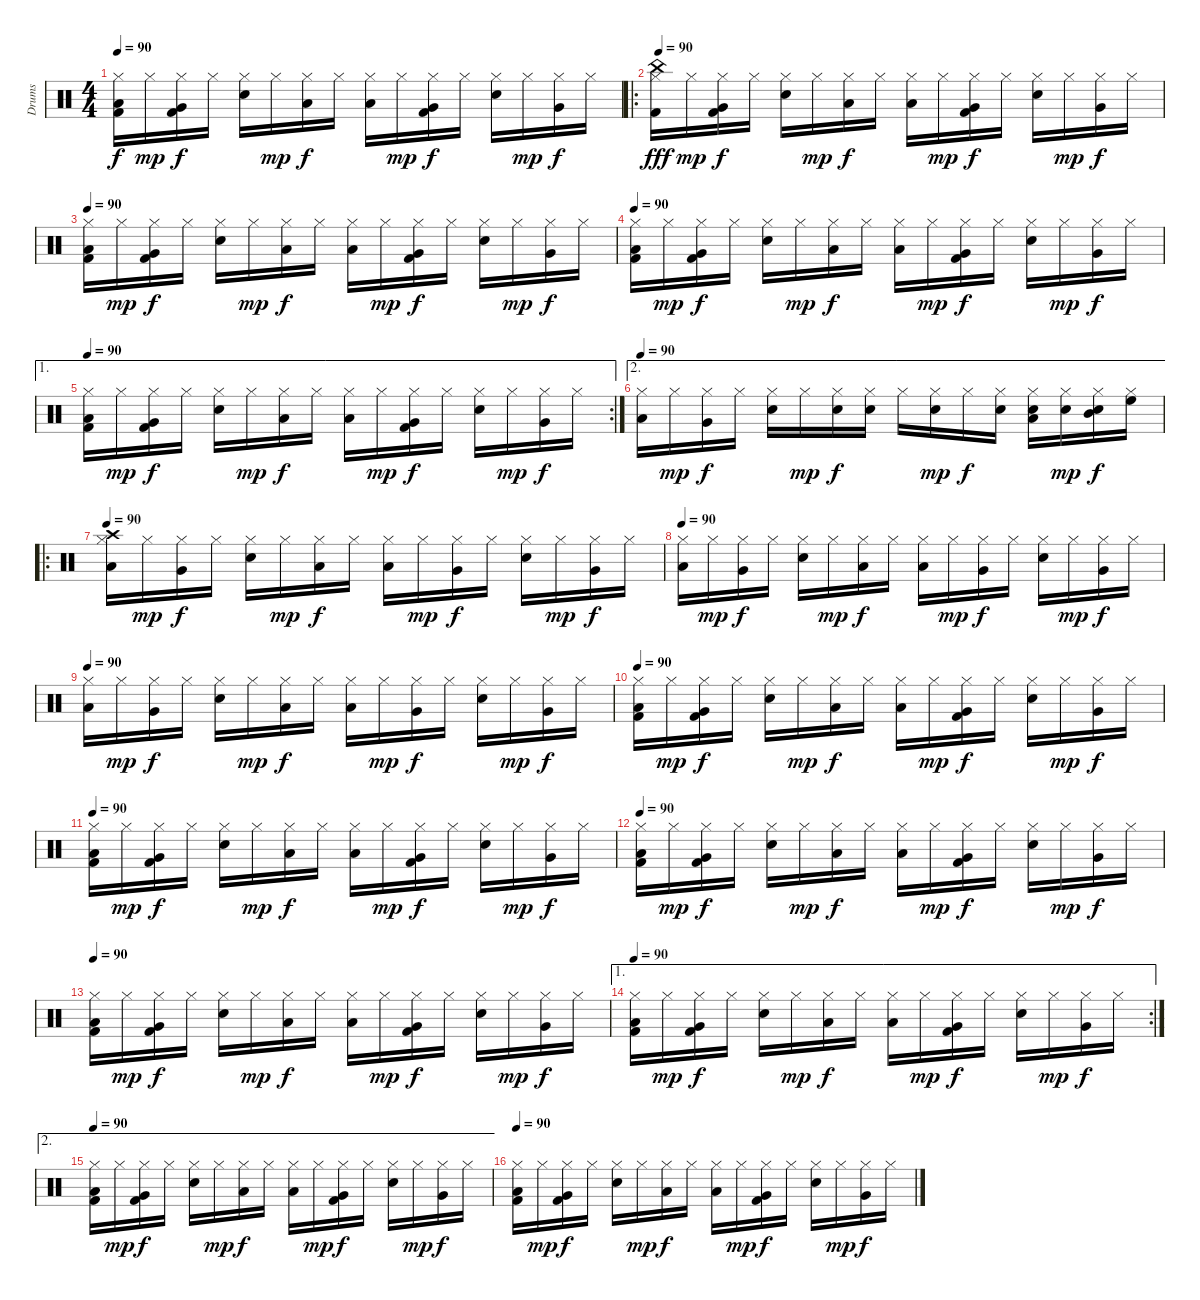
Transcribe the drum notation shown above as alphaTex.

\track ("Drums" "Drums") {instrument percussion}
\staff {score}
\articulation defaults
\ts (4 4)
\tempo 90
\clef neutral
\ks c
("Low Floor Tom (hit)" "Kick (hit) 2" "Hi-Hat (closed)").16{dy f} "Hi-Hat (closed)".16{dy mp} ("Very Low Tom (hit)" "Kick (hit) 2" "Hi-Hat (closed)").16{dy f} "Hi-Hat (closed)".16 ("Snare (hit) 2" "Hi-Hat (closed)").16 "Hi-Hat (closed)".16{dy mp} ("Low Tom (hit)" "Hi-Hat (closed)").16{dy f} "Hi-Hat (closed)".16 ("Low Tom (hit)" "Hi-Hat (closed)").16 "Hi-Hat (closed)".16{dy mp} ("Very Low Tom (hit)" "Kick (hit) 2" "Hi-Hat (closed)").16{dy f} "Hi-Hat (closed)".16 ("Snare (hit) 2" "Hi-Hat (closed)").16 "Hi-Hat (closed)".16{dy mp} ("Very Low Tom (hit)" "Hi-Hat (closed)").16{dy f} "Hi-Hat (closed)".16 |
\ro
\tempo 90
("China (hit)" "Kick (hit) 2" "Hi-Hat (closed)").16{dy fff} "Hi-Hat (closed)".16{dy mp} ("Very Low Tom (hit)" "Kick (hit) 2" "Hi-Hat (closed)").16{dy f} "Hi-Hat (closed)".16 ("Snare (hit) 2" "Hi-Hat (closed)").16 "Hi-Hat (closed)".16{dy mp} ("Low Tom (hit)" "Hi-Hat (closed)").16{dy f} "Hi-Hat (closed)".16 ("Low Tom (hit)" "Hi-Hat (closed)").16 "Hi-Hat (closed)".16{dy mp} ("Very Low Tom (hit)" "Kick (hit) 2" "Hi-Hat (closed)").16{dy f} "Hi-Hat (closed)".16 ("Snare (hit) 2" "Hi-Hat (closed)").16 "Hi-Hat (closed)".16{dy mp} ("Very Low Tom (hit)" "Hi-Hat (closed)").16{dy f} "Hi-Hat (closed)".16 |
\tempo 90
("Low Floor Tom (hit)" "Kick (hit) 2" "Hi-Hat (closed)").16 "Hi-Hat (closed)".16{dy mp} ("Very Low Tom (hit)" "Kick (hit) 2" "Hi-Hat (closed)").16{dy f} "Hi-Hat (closed)".16 ("Snare (hit) 2" "Hi-Hat (closed)").16 "Hi-Hat (closed)".16{dy mp} ("Low Tom (hit)" "Hi-Hat (closed)").16{dy f} "Hi-Hat (closed)".16 ("Low Tom (hit)" "Hi-Hat (closed)").16 "Hi-Hat (closed)".16{dy mp} ("Very Low Tom (hit)" "Kick (hit) 2" "Hi-Hat (closed)").16{dy f} "Hi-Hat (closed)".16 ("Snare (hit) 2" "Hi-Hat (closed)").16 "Hi-Hat (closed)".16{dy mp} ("Very Low Tom (hit)" "Hi-Hat (closed)").16{dy f} "Hi-Hat (closed)".16 |
\tempo 90
("Low Floor Tom (hit)" "Kick (hit) 2" "Hi-Hat (closed)").16 "Hi-Hat (closed)".16{dy mp} ("Very Low Tom (hit)" "Kick (hit) 2" "Hi-Hat (closed)").16{dy f} "Hi-Hat (closed)".16 ("Snare (hit) 2" "Hi-Hat (closed)").16 "Hi-Hat (closed)".16{dy mp} ("Low Tom (hit)" "Hi-Hat (closed)").16{dy f} "Hi-Hat (closed)".16 ("Low Tom (hit)" "Hi-Hat (closed)").16 "Hi-Hat (closed)".16{dy mp} ("Very Low Tom (hit)" "Kick (hit) 2" "Hi-Hat (closed)").16{dy f} "Hi-Hat (closed)".16 ("Snare (hit) 2" "Hi-Hat (closed)").16 "Hi-Hat (closed)".16{dy mp} ("Very Low Tom (hit)" "Hi-Hat (closed)").16{dy f} "Hi-Hat (closed)".16 |
\ae 1
\rc 2
\tempo 90
("Low Floor Tom (hit)" "Kick (hit) 2" "Hi-Hat (closed)").16 "Hi-Hat (closed)".16{dy mp} ("Very Low Tom (hit)" "Kick (hit) 2" "Hi-Hat (closed)").16{dy f} "Hi-Hat (closed)".16 ("Snare (hit) 2" "Hi-Hat (closed)").16 "Hi-Hat (closed)".16{dy mp} ("Low Tom (hit)" "Hi-Hat (closed)").16{dy f} "Hi-Hat (closed)".16 ("Low Tom (hit)" "Hi-Hat (closed)").16 "Hi-Hat (closed)".16{dy mp} ("Very Low Tom (hit)" "Kick (hit) 2" "Hi-Hat (closed)").16{dy f} "Hi-Hat (closed)".16 ("Snare (hit) 2" "Hi-Hat (closed)").16 "Hi-Hat (closed)".16{dy mp} ("Very Low Tom (hit)" "Hi-Hat (closed)").16{dy f} "Hi-Hat (closed)".16 |
\ae 2
\tempo 90
("Low Floor Tom (hit)" "Hi-Hat (closed)").16 "Hi-Hat (closed)".16{dy mp} ("Very Low Tom (hit)" "Hi-Hat (closed)").16{dy f} "Hi-Hat (closed)".16 ("Snare (hit) 2" "Hi-Hat (closed)").16 "Hi-Hat (closed)".16{dy mp} ("Electric Snare (hit)" "Hi-Hat (closed)").16{dy f} ("Electric Snare (hit)" "Hi-Hat (closed)").16 "Hi-Hat (closed)".16 ("Electric Snare (hit)" "Hi-Hat (closed)").16{dy mp} "Hi-Hat (closed)".16{dy f} ("Electric Snare (hit)" "Hi-Hat (closed)").16 ("Low Tom (hit)" "Electric Snare (hit)" "Hi-Hat (closed)").16 ("Electric Snare (hit)" "Hi-Hat (closed)").16{dy mp} ("Mid Tom (hit)" "Electric Snare (hit)" "Hi-Hat (closed)").16{dy f} ("High Floor Tom (hit)" "Hi-Hat (closed)").16 |
\ro
\tempo 90
("Low Floor Tom (hit)" "Crash high (hit)" "Hi-Hat (closed)").16 "Hi-Hat (closed)".16{dy mp} ("Very Low Tom (hit)" "Hi-Hat (closed)").16{dy f} "Hi-Hat (closed)".16 ("Snare (hit) 2" "Hi-Hat (closed)").16 "Hi-Hat (closed)".16{dy mp} ("Low Tom (hit)" "Hi-Hat (closed)").16{dy f} "Hi-Hat (closed)".16 ("Low Tom (hit)" "Hi-Hat (closed)").16 "Hi-Hat (closed)".16{dy mp} ("Very Low Tom (hit)" "Hi-Hat (closed)").16{dy f} "Hi-Hat (closed)".16 ("Snare (hit) 2" "Hi-Hat (closed)").16 "Hi-Hat (closed)".16{dy mp} ("Very Low Tom (hit)" "Hi-Hat (closed)").16{dy f} "Hi-Hat (closed)".16 |
\tempo 90
("Low Floor Tom (hit)" "Hi-Hat (closed)").16 "Hi-Hat (closed)".16{dy mp} ("Very Low Tom (hit)" "Hi-Hat (closed)").16{dy f} "Hi-Hat (closed)".16 ("Snare (hit) 2" "Hi-Hat (closed)").16 "Hi-Hat (closed)".16{dy mp} ("Low Tom (hit)" "Hi-Hat (closed)").16{dy f} "Hi-Hat (closed)".16 ("Low Tom (hit)" "Hi-Hat (closed)").16 "Hi-Hat (closed)".16{dy mp} ("Very Low Tom (hit)" "Hi-Hat (closed)").16{dy f} "Hi-Hat (closed)".16 ("Snare (hit) 2" "Hi-Hat (closed)").16 "Hi-Hat (closed)".16{dy mp} ("Very Low Tom (hit)" "Hi-Hat (closed)").16{dy f} "Hi-Hat (closed)".16 |
\tempo 90
("Low Floor Tom (hit)" "Hi-Hat (closed)").16 "Hi-Hat (closed)".16{dy mp} ("Very Low Tom (hit)" "Hi-Hat (closed)").16{dy f} "Hi-Hat (closed)".16 ("Snare (hit) 2" "Hi-Hat (closed)").16 "Hi-Hat (closed)".16{dy mp} ("Low Tom (hit)" "Hi-Hat (closed)").16{dy f} "Hi-Hat (closed)".16 ("Low Tom (hit)" "Hi-Hat (closed)").16 "Hi-Hat (closed)".16{dy mp} ("Very Low Tom (hit)" "Hi-Hat (closed)").16{dy f} "Hi-Hat (closed)".16 ("Snare (hit) 2" "Hi-Hat (closed)").16 "Hi-Hat (closed)".16{dy mp} ("Very Low Tom (hit)" "Hi-Hat (closed)").16{dy f} "Hi-Hat (closed)".16 |
\tempo 90
("Low Floor Tom (hit)" "Kick (hit) 2" "Hi-Hat (closed)").16 "Hi-Hat (closed)".16{dy mp} ("Very Low Tom (hit)" "Kick (hit) 2" "Hi-Hat (closed)").16{dy f} "Hi-Hat (closed)".16 ("Snare (hit) 2" "Hi-Hat (closed)").16 "Hi-Hat (closed)".16{dy mp} ("Low Tom (hit)" "Hi-Hat (closed)").16{dy f} "Hi-Hat (closed)".16 ("Low Tom (hit)" "Hi-Hat (closed)").16 "Hi-Hat (closed)".16{dy mp} ("Very Low Tom (hit)" "Kick (hit) 2" "Hi-Hat (closed)").16{dy f} "Hi-Hat (closed)".16 ("Snare (hit) 2" "Hi-Hat (closed)").16 "Hi-Hat (closed)".16{dy mp} ("Very Low Tom (hit)" "Hi-Hat (closed)").16{dy f} "Hi-Hat (closed)".16 |
\tempo 90
("Low Floor Tom (hit)" "Kick (hit) 2" "Hi-Hat (closed)").16 "Hi-Hat (closed)".16{dy mp} ("Very Low Tom (hit)" "Kick (hit) 2" "Hi-Hat (closed)").16{dy f} "Hi-Hat (closed)".16 ("Snare (hit) 2" "Hi-Hat (closed)").16 "Hi-Hat (closed)".16{dy mp} ("Low Tom (hit)" "Hi-Hat (closed)").16{dy f} "Hi-Hat (closed)".16 ("Low Tom (hit)" "Hi-Hat (closed)").16 "Hi-Hat (closed)".16{dy mp} ("Very Low Tom (hit)" "Kick (hit) 2" "Hi-Hat (closed)").16{dy f} "Hi-Hat (closed)".16 ("Snare (hit) 2" "Hi-Hat (closed)").16 "Hi-Hat (closed)".16{dy mp} ("Very Low Tom (hit)" "Hi-Hat (closed)").16{dy f} "Hi-Hat (closed)".16 |
\tempo 90
("Low Floor Tom (hit)" "Kick (hit) 2" "Hi-Hat (closed)").16 "Hi-Hat (closed)".16{dy mp} ("Very Low Tom (hit)" "Kick (hit) 2" "Hi-Hat (closed)").16{dy f} "Hi-Hat (closed)".16 ("Snare (hit) 2" "Hi-Hat (closed)").16 "Hi-Hat (closed)".16{dy mp} ("Low Tom (hit)" "Hi-Hat (closed)").16{dy f} "Hi-Hat (closed)".16 ("Low Tom (hit)" "Hi-Hat (closed)").16 "Hi-Hat (closed)".16{dy mp} ("Very Low Tom (hit)" "Kick (hit) 2" "Hi-Hat (closed)").16{dy f} "Hi-Hat (closed)".16 ("Snare (hit) 2" "Hi-Hat (closed)").16 "Hi-Hat (closed)".16{dy mp} ("Very Low Tom (hit)" "Hi-Hat (closed)").16{dy f} "Hi-Hat (closed)".16 |
\tempo 90
("Low Floor Tom (hit)" "Kick (hit) 2" "Hi-Hat (closed)").16 "Hi-Hat (closed)".16{dy mp} ("Very Low Tom (hit)" "Kick (hit) 2" "Hi-Hat (closed)").16{dy f} "Hi-Hat (closed)".16 ("Snare (hit) 2" "Hi-Hat (closed)").16 "Hi-Hat (closed)".16{dy mp} ("Low Tom (hit)" "Hi-Hat (closed)").16{dy f} "Hi-Hat (closed)".16 ("Low Tom (hit)" "Hi-Hat (closed)").16 "Hi-Hat (closed)".16{dy mp} ("Very Low Tom (hit)" "Kick (hit) 2" "Hi-Hat (closed)").16{dy f} "Hi-Hat (closed)".16 ("Snare (hit) 2" "Hi-Hat (closed)").16 "Hi-Hat (closed)".16{dy mp} ("Very Low Tom (hit)" "Hi-Hat (closed)").16{dy f} "Hi-Hat (closed)".16 |
\ae 1
\rc 2
\tempo 90
("Low Floor Tom (hit)" "Kick (hit) 2" "Hi-Hat (closed)").16 "Hi-Hat (closed)".16{dy mp} ("Very Low Tom (hit)" "Kick (hit) 2" "Hi-Hat (closed)").16{dy f} "Hi-Hat (closed)".16 ("Snare (hit) 2" "Hi-Hat (closed)").16 "Hi-Hat (closed)".16{dy mp} ("Low Tom (hit)" "Hi-Hat (closed)").16{dy f} "Hi-Hat (closed)".16 ("Low Tom (hit)" "Hi-Hat (closed)").16 "Hi-Hat (closed)".16{dy mp} ("Very Low Tom (hit)" "Kick (hit) 2" "Hi-Hat (closed)").16{dy f} "Hi-Hat (closed)".16 ("Snare (hit) 2" "Hi-Hat (closed)").16 "Hi-Hat (closed)".16{dy mp} ("Very Low Tom (hit)" "Hi-Hat (closed)").16{dy f} "Hi-Hat (closed)".16 |
\ae 2
\tempo 90
("Low Floor Tom (hit)" "Kick (hit) 2" "Hi-Hat (closed)").16 "Hi-Hat (closed)".16{dy mp} ("Very Low Tom (hit)" "Kick (hit) 2" "Hi-Hat (closed)").16{dy f} "Hi-Hat (closed)".16 ("Snare (hit) 2" "Hi-Hat (closed)").16 "Hi-Hat (closed)".16{dy mp} ("Low Tom (hit)" "Hi-Hat (closed)").16{dy f} "Hi-Hat (closed)".16 ("Low Tom (hit)" "Hi-Hat (closed)").16 "Hi-Hat (closed)".16{dy mp} ("Very Low Tom (hit)" "Kick (hit) 2" "Hi-Hat (closed)").16{dy f} "Hi-Hat (closed)".16 ("Snare (hit) 2" "Hi-Hat (closed)").16 "Hi-Hat (closed)".16{dy mp} ("Very Low Tom (hit)" "Hi-Hat (closed)").16{dy f} "Hi-Hat (closed)".16 |
\tempo 90
("Low Floor Tom (hit)" "Kick (hit) 2" "Hi-Hat (closed)").16 "Hi-Hat (closed)".16{dy mp} ("Very Low Tom (hit)" "Kick (hit) 2" "Hi-Hat (closed)").16{dy f} "Hi-Hat (closed)".16 ("Snare (hit) 2" "Hi-Hat (closed)").16 "Hi-Hat (closed)".16{dy mp} ("Low Tom (hit)" "Hi-Hat (closed)").16{dy f} "Hi-Hat (closed)".16 ("Low Tom (hit)" "Hi-Hat (closed)").16 "Hi-Hat (closed)".16{dy mp} ("Very Low Tom (hit)" "Kick (hit) 2" "Hi-Hat (closed)").16{dy f} "Hi-Hat (closed)".16 ("Snare (hit) 2" "Hi-Hat (closed)").16 "Hi-Hat (closed)".16{dy mp} ("Very Low Tom (hit)" "Hi-Hat (closed)").16{dy f} "Hi-Hat (closed)".16
